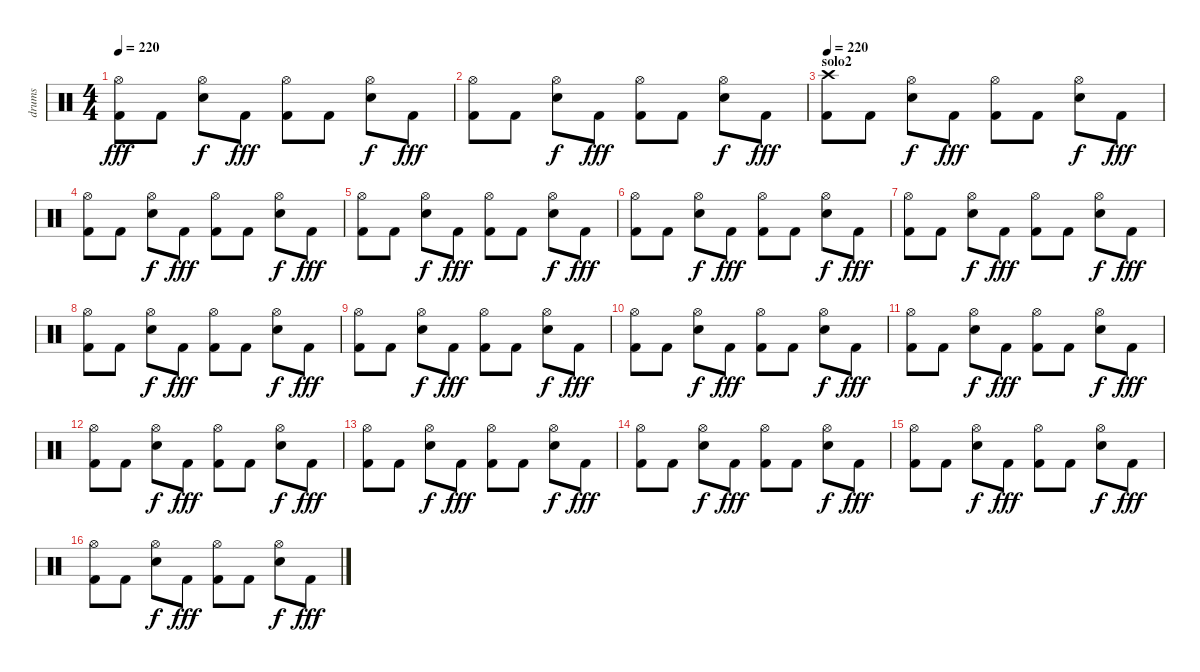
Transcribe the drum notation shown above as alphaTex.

\track ("drums" "drums") {instrument percussion}
\staff {score}
\articulation defaults
\ts (4 4)
\tempo 220
\clef neutral
\ks c
("Hi-Hat (open)" "Kick (hit) 2").8{dy fff} "Kick (hit) 2".8 ("Hi-Hat (open)" "Snare (hit) 2").8{dy f} "Kick (hit) 2".8{dy fff} ("Hi-Hat (open)" "Kick (hit) 2").8 "Kick (hit) 2".8 ("Hi-Hat (open)" "Snare (hit) 2").8{dy f} "Kick (hit) 2".8{dy fff} |
("Hi-Hat (open)" "Kick (hit) 2").8 "Kick (hit) 2".8 ("Hi-Hat (open)" "Snare (hit) 2").8{dy f} "Kick (hit) 2".8{dy fff} ("Hi-Hat (open)" "Kick (hit) 2").8 "Kick (hit) 2".8 ("Hi-Hat (open)" "Snare (hit) 2").8{dy f} "Kick (hit) 2".8{dy fff} |
\section ("" "solo2")
\tempo 220
("Crash high (hit)" "Kick (hit) 2").8 "Kick (hit) 2".8 ("Hi-Hat (open)" "Snare (hit) 2").8{dy f} "Kick (hit) 2".8{dy fff} ("Hi-Hat (open)" "Kick (hit) 2").8 "Kick (hit) 2".8 ("Hi-Hat (open)" "Snare (hit) 2").8{dy f} "Kick (hit) 2".8{dy fff} |
("Hi-Hat (open)" "Kick (hit) 2").8 "Kick (hit) 2".8 ("Hi-Hat (open)" "Snare (hit) 2").8{dy f} "Kick (hit) 2".8{dy fff} ("Hi-Hat (open)" "Kick (hit) 2").8 "Kick (hit) 2".8 ("Hi-Hat (open)" "Snare (hit) 2").8{dy f} "Kick (hit) 2".8{dy fff} |
("Hi-Hat (open)" "Kick (hit) 2").8 "Kick (hit) 2".8 ("Hi-Hat (open)" "Snare (hit) 2").8{dy f} "Kick (hit) 2".8{dy fff} ("Hi-Hat (open)" "Kick (hit) 2").8 "Kick (hit) 2".8 ("Hi-Hat (open)" "Snare (hit) 2").8{dy f} "Kick (hit) 2".8{dy fff} |
("Hi-Hat (open)" "Kick (hit) 2").8 "Kick (hit) 2".8 ("Hi-Hat (open)" "Snare (hit) 2").8{dy f} "Kick (hit) 2".8{dy fff} ("Hi-Hat (open)" "Kick (hit) 2").8 "Kick (hit) 2".8 ("Hi-Hat (open)" "Snare (hit) 2").8{dy f} "Kick (hit) 2".8{dy fff} |
("Hi-Hat (open)" "Kick (hit) 2").8 "Kick (hit) 2".8 ("Hi-Hat (open)" "Snare (hit) 2").8{dy f} "Kick (hit) 2".8{dy fff} ("Hi-Hat (open)" "Kick (hit) 2").8 "Kick (hit) 2".8 ("Hi-Hat (open)" "Snare (hit) 2").8{dy f} "Kick (hit) 2".8{dy fff} |
("Hi-Hat (open)" "Kick (hit) 2").8 "Kick (hit) 2".8 ("Hi-Hat (open)" "Snare (hit) 2").8{dy f} "Kick (hit) 2".8{dy fff} ("Hi-Hat (open)" "Kick (hit) 2").8 "Kick (hit) 2".8 ("Hi-Hat (open)" "Snare (hit) 2").8{dy f} "Kick (hit) 2".8{dy fff} |
("Hi-Hat (open)" "Kick (hit) 2").8 "Kick (hit) 2".8 ("Hi-Hat (open)" "Snare (hit) 2").8{dy f} "Kick (hit) 2".8{dy fff} ("Hi-Hat (open)" "Kick (hit) 2").8 "Kick (hit) 2".8 ("Hi-Hat (open)" "Snare (hit) 2").8{dy f} "Kick (hit) 2".8{dy fff} |
("Hi-Hat (open)" "Kick (hit) 2").8 "Kick (hit) 2".8 ("Hi-Hat (open)" "Snare (hit) 2").8{dy f} "Kick (hit) 2".8{dy fff} ("Hi-Hat (open)" "Kick (hit) 2").8 "Kick (hit) 2".8 ("Hi-Hat (open)" "Snare (hit) 2").8{dy f} "Kick (hit) 2".8{dy fff} |
("Hi-Hat (open)" "Kick (hit) 2").8 "Kick (hit) 2".8 ("Hi-Hat (open)" "Snare (hit) 2").8{dy f} "Kick (hit) 2".8{dy fff} ("Hi-Hat (open)" "Kick (hit) 2").8 "Kick (hit) 2".8 ("Hi-Hat (open)" "Snare (hit) 2").8{dy f} "Kick (hit) 2".8{dy fff} |
("Hi-Hat (open)" "Kick (hit) 2").8 "Kick (hit) 2".8 ("Hi-Hat (open)" "Snare (hit) 2").8{dy f} "Kick (hit) 2".8{dy fff} ("Hi-Hat (open)" "Kick (hit) 2").8 "Kick (hit) 2".8 ("Hi-Hat (open)" "Snare (hit) 2").8{dy f} "Kick (hit) 2".8{dy fff} |
("Hi-Hat (open)" "Kick (hit) 2").8 "Kick (hit) 2".8 ("Hi-Hat (open)" "Snare (hit) 2").8{dy f} "Kick (hit) 2".8{dy fff} ("Hi-Hat (open)" "Kick (hit) 2").8 "Kick (hit) 2".8 ("Hi-Hat (open)" "Snare (hit) 2").8{dy f} "Kick (hit) 2".8{dy fff} |
("Hi-Hat (open)" "Kick (hit) 2").8 "Kick (hit) 2".8 ("Hi-Hat (open)" "Snare (hit) 2").8{dy f} "Kick (hit) 2".8{dy fff} ("Hi-Hat (open)" "Kick (hit) 2").8 "Kick (hit) 2".8 ("Hi-Hat (open)" "Snare (hit) 2").8{dy f} "Kick (hit) 2".8{dy fff} |
("Hi-Hat (open)" "Kick (hit) 2").8 "Kick (hit) 2".8 ("Hi-Hat (open)" "Snare (hit) 2").8{dy f} "Kick (hit) 2".8{dy fff} ("Hi-Hat (open)" "Kick (hit) 2").8 "Kick (hit) 2".8 ("Hi-Hat (open)" "Snare (hit) 2").8{dy f} "Kick (hit) 2".8{dy fff} |
("Hi-Hat (open)" "Kick (hit) 2").8 "Kick (hit) 2".8 ("Hi-Hat (open)" "Snare (hit) 2").8{dy f} "Kick (hit) 2".8{dy fff} ("Hi-Hat (open)" "Kick (hit) 2").8 "Kick (hit) 2".8 ("Hi-Hat (open)" "Snare (hit) 2").8{dy f} "Kick (hit) 2".8{dy fff}
